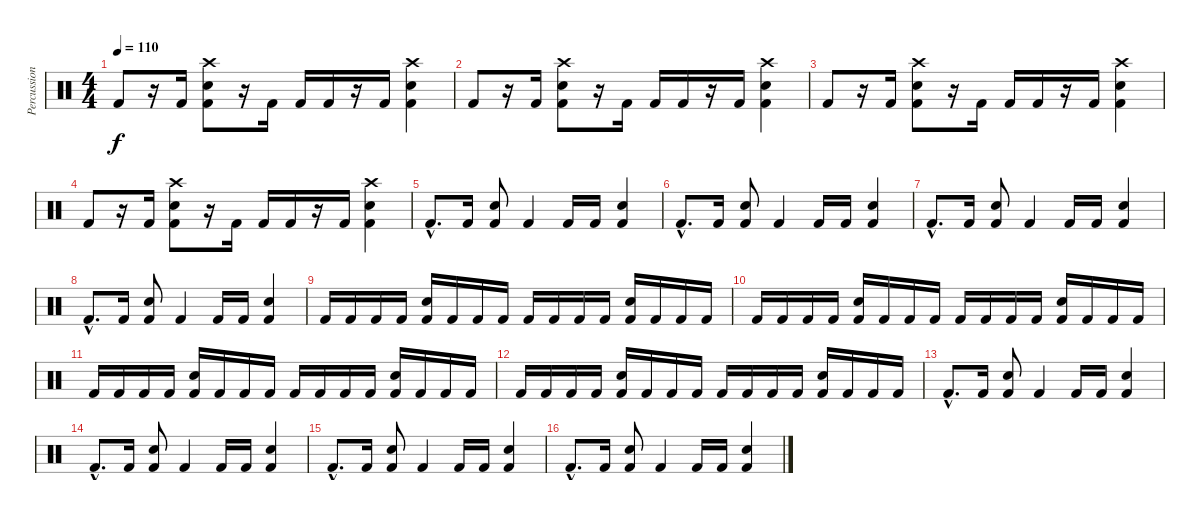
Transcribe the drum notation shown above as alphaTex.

\track ("Percussioni" "Percussion") {instrument percussion}
\staff {score}
\articulation defaults
\ts (4 4)
\tempo 110
\clef neutral
\ks c "Kick (hit) 2".8{dy f}
r.16 "Kick (hit) 2".16 ("Snare (hit) 2" "Kick (hit) 2" "Crash high (hit)").8 r.16 "Kick (hit) 2".16 "Kick (hit) 2".16 "Kick (hit) 2".16 r.16 "Kick (hit) 2".16 ("Snare (hit) 2" "Kick (hit) 2" "Crash high (hit)").4 |
"Kick (hit) 2".8 r.16 "Kick (hit) 2".16 ("Snare (hit) 2" "Kick (hit) 2" "Crash high (hit)").8 r.16 "Kick (hit) 2".16 "Kick (hit) 2".16 "Kick (hit) 2".16 r.16 "Kick (hit) 2".16 ("Snare (hit) 2" "Kick (hit) 2" "Crash high (hit)").4 |
"Kick (hit) 2".8 r.16 "Kick (hit) 2".16 ("Snare (hit) 2" "Kick (hit) 2" "Crash high (hit)").8 r.16 "Kick (hit) 2".16 "Kick (hit) 2".16 "Kick (hit) 2".16 r.16 "Kick (hit) 2".16 ("Snare (hit) 2" "Kick (hit) 2" "Crash high (hit)").4 |
"Kick (hit) 2".8 r.16 "Kick (hit) 2".16 ("Snare (hit) 2" "Kick (hit) 2" "Crash high (hit)").8 r.16 "Kick (hit) 2".16 "Kick (hit) 2".16 "Kick (hit) 2".16 r.16 "Kick (hit) 2".16 ("Snare (hit) 2" "Kick (hit) 2" "Crash high (hit)").4 |
"Kick (hit) 2"{hac}.8{d} "Kick (hit) 2".16 ("Snare (hit) 2" "Kick (hit) 2").8 "Kick (hit) 2".4 "Kick (hit) 2".16 "Kick (hit) 2".16 ("Snare (hit) 2" "Kick (hit) 2").4 |
"Kick (hit) 2"{hac}.8{d} "Kick (hit) 2".16 ("Snare (hit) 2" "Kick (hit) 2").8 "Kick (hit) 2".4 "Kick (hit) 2".16 "Kick (hit) 2".16 ("Snare (hit) 2" "Kick (hit) 2").4 |
"Kick (hit) 2"{hac}.8{d} "Kick (hit) 2".16 ("Snare (hit) 2" "Kick (hit) 2").8 "Kick (hit) 2".4 "Kick (hit) 2".16 "Kick (hit) 2".16 ("Snare (hit) 2" "Kick (hit) 2").4 |
"Kick (hit) 2"{hac}.8{d} "Kick (hit) 2".16 ("Snare (hit) 2" "Kick (hit) 2").8 "Kick (hit) 2".4 "Kick (hit) 2".16 "Kick (hit) 2".16 ("Snare (hit) 2" "Kick (hit) 2").4 |
"Kick (hit) 2".16 "Kick (hit) 2".16 "Kick (hit) 2".16 "Kick (hit) 2".16 ("Snare (hit) 2" "Kick (hit) 2").16 "Kick (hit) 2".16 "Kick (hit) 2".16 "Kick (hit) 2".16 "Kick (hit) 2".16 "Kick (hit) 2".16 "Kick (hit) 2".16 "Kick (hit) 2".16 ("Snare (hit) 2" "Kick (hit) 2").16 "Kick (hit) 2".16 "Kick (hit) 2".16 "Kick (hit) 2".16 |
"Kick (hit) 2".16 "Kick (hit) 2".16 "Kick (hit) 2".16 "Kick (hit) 2".16 ("Snare (hit) 2" "Kick (hit) 2").16 "Kick (hit) 2".16 "Kick (hit) 2".16 "Kick (hit) 2".16 "Kick (hit) 2".16 "Kick (hit) 2".16 "Kick (hit) 2".16 "Kick (hit) 2".16 ("Snare (hit) 2" "Kick (hit) 2").16 "Kick (hit) 2".16 "Kick (hit) 2".16 "Kick (hit) 2".16 |
"Kick (hit) 2".16 "Kick (hit) 2".16 "Kick (hit) 2".16 "Kick (hit) 2".16 ("Snare (hit) 2" "Kick (hit) 2").16 "Kick (hit) 2".16 "Kick (hit) 2".16 "Kick (hit) 2".16 "Kick (hit) 2".16 "Kick (hit) 2".16 "Kick (hit) 2".16 "Kick (hit) 2".16 ("Snare (hit) 2" "Kick (hit) 2").16 "Kick (hit) 2".16 "Kick (hit) 2".16 "Kick (hit) 2".16 |
"Kick (hit) 2".16 "Kick (hit) 2".16 "Kick (hit) 2".16 "Kick (hit) 2".16 ("Snare (hit) 2" "Kick (hit) 2").16 "Kick (hit) 2".16 "Kick (hit) 2".16 "Kick (hit) 2".16 "Kick (hit) 2".16 "Kick (hit) 2".16 "Kick (hit) 2".16 "Kick (hit) 2".16 ("Snare (hit) 2" "Kick (hit) 2").16 "Kick (hit) 2".16 "Kick (hit) 2".16 "Kick (hit) 2".16 |
"Kick (hit) 2"{hac}.8{d} "Kick (hit) 2".16 ("Snare (hit) 2" "Kick (hit) 2").8 "Kick (hit) 2".4 "Kick (hit) 2".16 "Kick (hit) 2".16 ("Snare (hit) 2" "Kick (hit) 2").4 |
"Kick (hit) 2"{hac}.8{d} "Kick (hit) 2".16 ("Snare (hit) 2" "Kick (hit) 2").8 "Kick (hit) 2".4 "Kick (hit) 2".16 "Kick (hit) 2".16 ("Snare (hit) 2" "Kick (hit) 2").4 |
"Kick (hit) 2"{hac}.8{d} "Kick (hit) 2".16 ("Snare (hit) 2" "Kick (hit) 2").8 "Kick (hit) 2".4 "Kick (hit) 2".16 "Kick (hit) 2".16 ("Snare (hit) 2" "Kick (hit) 2").4 |
"Kick (hit) 2"{hac}.8{d} "Kick (hit) 2".16 ("Snare (hit) 2" "Kick (hit) 2").8 "Kick (hit) 2".4 "Kick (hit) 2".16 "Kick (hit) 2".16 ("Snare (hit) 2" "Kick (hit) 2").4
